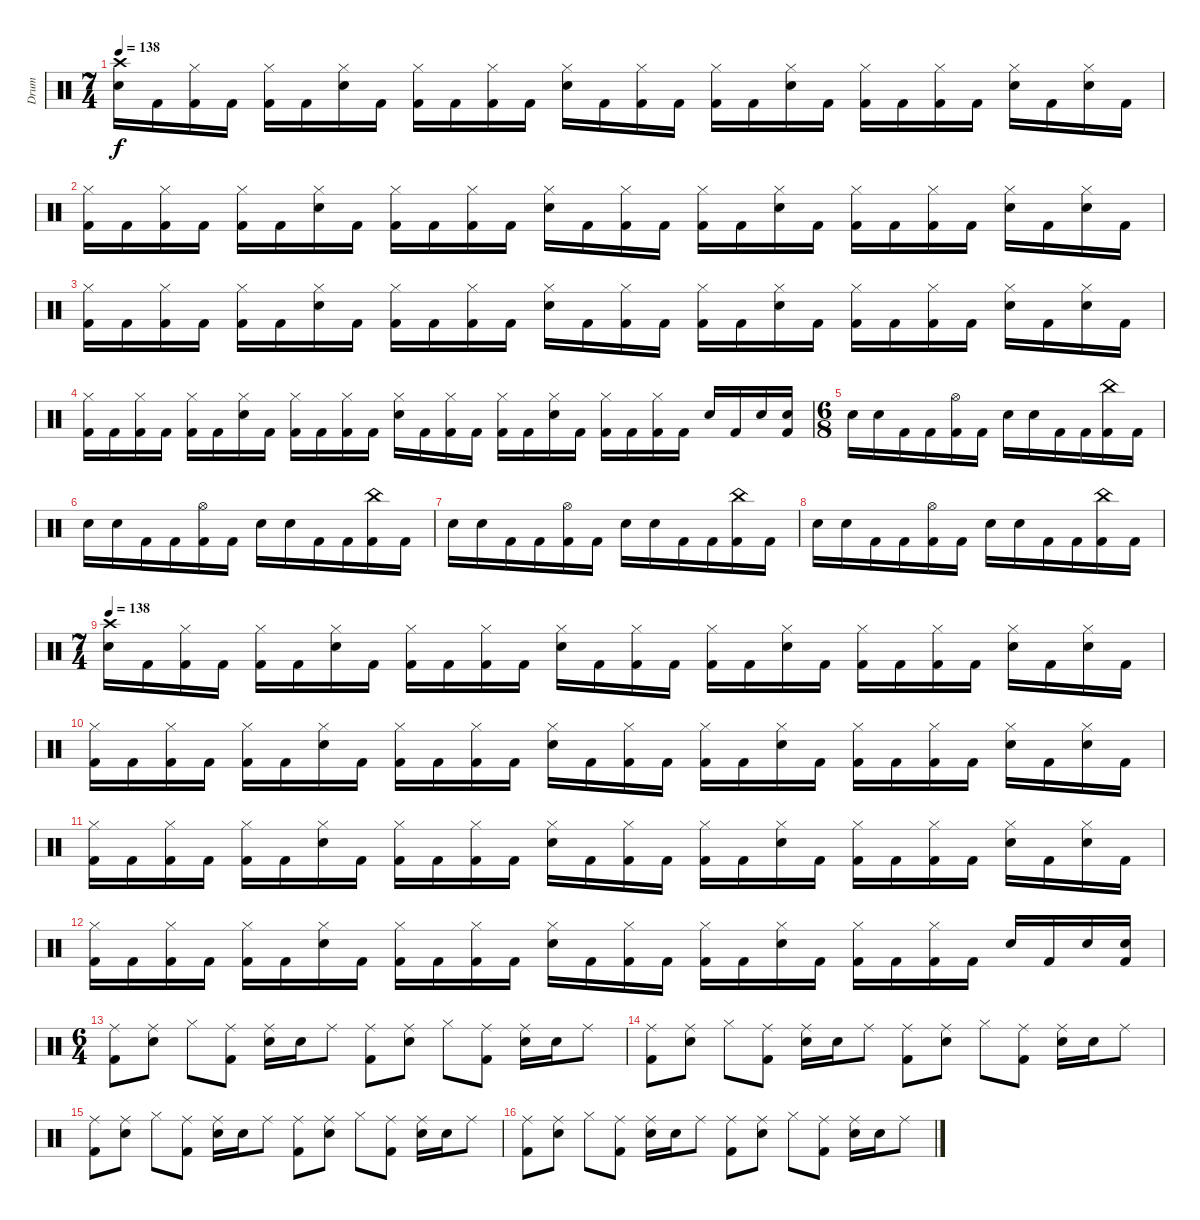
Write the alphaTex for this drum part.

\track ("Drum" "Drum") {instrument percussion}
\staff {score}
\articulation defaults
\ts (7 4)
\tempo 138
\clef neutral
\ks c
("Crash high (hit)" "Snare (hit) 2").16{dy f} "Kick (hit) 2".16 ("Hi-Hat (closed)" "Kick (hit) 2").16 "Kick (hit) 2".16 ("Hi-Hat (closed)" "Kick (hit) 2").16 "Kick (hit) 2".16 ("Hi-Hat (closed)" "Snare (hit) 2").16 "Kick (hit) 2".16 ("Hi-Hat (closed)" "Kick (hit) 2").16 "Kick (hit) 2".16 ("Hi-Hat (closed)" "Kick (hit) 2").16 "Kick (hit) 2".16 ("Hi-Hat (closed)" "Snare (hit) 2").16 "Kick (hit) 2".16 ("Hi-Hat (closed)" "Kick (hit) 2").16 "Kick (hit) 2".16 ("Hi-Hat (closed)" "Kick (hit) 2").16 "Kick (hit) 2".16 ("Hi-Hat (closed)" "Snare (hit) 2").16 "Kick (hit) 2".16 ("Hi-Hat (closed)" "Kick (hit) 2").16 "Kick (hit) 2".16 ("Hi-Hat (closed)" "Kick (hit) 2").16 "Kick (hit) 2".16 ("Hi-Hat (closed)" "Snare (hit) 2").16 "Kick (hit) 2".16 ("Hi-Hat (closed)" "Snare (hit) 2").16 "Kick (hit) 2".16 |
("Hi-Hat (closed)" "Kick (hit) 2").16 "Kick (hit) 2".16 ("Hi-Hat (closed)" "Kick (hit) 2").16 "Kick (hit) 2".16 ("Hi-Hat (closed)" "Kick (hit) 2").16 "Kick (hit) 2".16 ("Hi-Hat (closed)" "Snare (hit) 2").16 "Kick (hit) 2".16 ("Hi-Hat (closed)" "Kick (hit) 2").16 "Kick (hit) 2".16 ("Hi-Hat (closed)" "Kick (hit) 2").16 "Kick (hit) 2".16 ("Hi-Hat (closed)" "Snare (hit) 2").16 "Kick (hit) 2".16 ("Hi-Hat (closed)" "Kick (hit) 2").16 "Kick (hit) 2".16 ("Hi-Hat (closed)" "Kick (hit) 2").16 "Kick (hit) 2".16 ("Hi-Hat (closed)" "Snare (hit) 2").16 "Kick (hit) 2".16 ("Hi-Hat (closed)" "Kick (hit) 2").16 "Kick (hit) 2".16 ("Hi-Hat (closed)" "Kick (hit) 2").16 "Kick (hit) 2".16 ("Hi-Hat (closed)" "Snare (hit) 2").16 "Kick (hit) 2".16 ("Hi-Hat (closed)" "Snare (hit) 2").16 "Kick (hit) 2".16 |
("Hi-Hat (closed)" "Kick (hit) 2").16 "Kick (hit) 2".16 ("Hi-Hat (closed)" "Kick (hit) 2").16 "Kick (hit) 2".16 ("Hi-Hat (closed)" "Kick (hit) 2").16 "Kick (hit) 2".16 ("Hi-Hat (closed)" "Snare (hit) 2").16 "Kick (hit) 2".16 ("Hi-Hat (closed)" "Kick (hit) 2").16 "Kick (hit) 2".16 ("Hi-Hat (closed)" "Kick (hit) 2").16 "Kick (hit) 2".16 ("Hi-Hat (closed)" "Snare (hit) 2").16 "Kick (hit) 2".16 ("Hi-Hat (closed)" "Kick (hit) 2").16 "Kick (hit) 2".16 ("Hi-Hat (closed)" "Kick (hit) 2").16 "Kick (hit) 2".16 ("Hi-Hat (closed)" "Snare (hit) 2").16 "Kick (hit) 2".16 ("Hi-Hat (closed)" "Kick (hit) 2").16 "Kick (hit) 2".16 ("Hi-Hat (closed)" "Kick (hit) 2").16 "Kick (hit) 2".16 ("Hi-Hat (closed)" "Snare (hit) 2").16 "Kick (hit) 2".16 ("Hi-Hat (closed)" "Snare (hit) 2").16 "Kick (hit) 2".16 |
("Hi-Hat (closed)" "Kick (hit) 2").16 "Kick (hit) 2".16 ("Hi-Hat (closed)" "Kick (hit) 2").16 "Kick (hit) 2".16 ("Hi-Hat (closed)" "Kick (hit) 2").16 "Kick (hit) 2".16 ("Hi-Hat (closed)" "Snare (hit) 2").16 "Kick (hit) 2".16 ("Hi-Hat (closed)" "Kick (hit) 2").16 "Kick (hit) 2".16 ("Hi-Hat (closed)" "Kick (hit) 2").16 "Kick (hit) 2".16 ("Hi-Hat (closed)" "Snare (hit) 2").16 "Kick (hit) 2".16 ("Hi-Hat (closed)" "Kick (hit) 2").16 "Kick (hit) 2".16 ("Hi-Hat (closed)" "Kick (hit) 2").16 "Kick (hit) 2".16 ("Hi-Hat (closed)" "Snare (hit) 2").16 "Kick (hit) 2".16 ("Hi-Hat (closed)" "Kick (hit) 2").16 "Kick (hit) 2".16 ("Hi-Hat (closed)" "Kick (hit) 2").16 "Kick (hit) 2".16 "Snare (hit) 2".16 "Kick (hit) 2".16 "Snare (hit) 2".16 ("Snare (hit) 2" "Kick (hit) 2").16 |
\ts (6 8)
"Snare (hit) 2".16 "Snare (hit) 2".16 "Kick (hit) 2".16 "Kick (hit) 2".16 ("Hi-Hat (open)" "Kick (hit) 2").16 "Kick (hit) 2".16 "Snare (hit) 2".16 "Snare (hit) 2".16 "Kick (hit) 2".16 "Kick (hit) 2".16 ("China (hit)" "Kick (hit) 2").16 "Kick (hit) 2".16 |
"Snare (hit) 2".16 "Snare (hit) 2".16 "Kick (hit) 2".16 "Kick (hit) 2".16 ("Hi-Hat (open)" "Kick (hit) 2").16 "Kick (hit) 2".16 "Snare (hit) 2".16 "Snare (hit) 2".16 "Kick (hit) 2".16 "Kick (hit) 2".16 ("China (hit)" "Kick (hit) 2").16 "Kick (hit) 2".16 |
"Snare (hit) 2".16 "Snare (hit) 2".16 "Kick (hit) 2".16 "Kick (hit) 2".16 ("Hi-Hat (open)" "Kick (hit) 2").16 "Kick (hit) 2".16 "Snare (hit) 2".16 "Snare (hit) 2".16 "Kick (hit) 2".16 "Kick (hit) 2".16 ("China (hit)" "Kick (hit) 2").16 "Kick (hit) 2".16 |
"Snare (hit) 2".16 "Snare (hit) 2".16 "Kick (hit) 2".16 "Kick (hit) 2".16 ("Hi-Hat (open)" "Kick (hit) 2").16 "Kick (hit) 2".16 "Snare (hit) 2".16 "Snare (hit) 2".16 "Kick (hit) 2".16 "Kick (hit) 2".16 ("China (hit)" "Kick (hit) 2").16 "Kick (hit) 2".16 |
\ts (7 4)
\tempo 138
("Crash high (hit)" "Snare (hit) 2").16 "Kick (hit) 2".16 ("Hi-Hat (closed)" "Kick (hit) 2").16 "Kick (hit) 2".16 ("Hi-Hat (closed)" "Kick (hit) 2").16 "Kick (hit) 2".16 ("Hi-Hat (closed)" "Snare (hit) 2").16 "Kick (hit) 2".16 ("Hi-Hat (closed)" "Kick (hit) 2").16 "Kick (hit) 2".16 ("Hi-Hat (closed)" "Kick (hit) 2").16 "Kick (hit) 2".16 ("Hi-Hat (closed)" "Snare (hit) 2").16 "Kick (hit) 2".16 ("Hi-Hat (closed)" "Kick (hit) 2").16 "Kick (hit) 2".16 ("Hi-Hat (closed)" "Kick (hit) 2").16 "Kick (hit) 2".16 ("Hi-Hat (closed)" "Snare (hit) 2").16 "Kick (hit) 2".16 ("Hi-Hat (closed)" "Kick (hit) 2").16 "Kick (hit) 2".16 ("Hi-Hat (closed)" "Kick (hit) 2").16 "Kick (hit) 2".16 ("Hi-Hat (closed)" "Snare (hit) 2").16 "Kick (hit) 2".16 ("Hi-Hat (closed)" "Snare (hit) 2").16 "Kick (hit) 2".16 |
("Hi-Hat (closed)" "Kick (hit) 2").16 "Kick (hit) 2".16 ("Hi-Hat (closed)" "Kick (hit) 2").16 "Kick (hit) 2".16 ("Hi-Hat (closed)" "Kick (hit) 2").16 "Kick (hit) 2".16 ("Hi-Hat (closed)" "Snare (hit) 2").16 "Kick (hit) 2".16 ("Hi-Hat (closed)" "Kick (hit) 2").16 "Kick (hit) 2".16 ("Hi-Hat (closed)" "Kick (hit) 2").16 "Kick (hit) 2".16 ("Hi-Hat (closed)" "Snare (hit) 2").16 "Kick (hit) 2".16 ("Hi-Hat (closed)" "Kick (hit) 2").16 "Kick (hit) 2".16 ("Hi-Hat (closed)" "Kick (hit) 2").16 "Kick (hit) 2".16 ("Hi-Hat (closed)" "Snare (hit) 2").16 "Kick (hit) 2".16 ("Hi-Hat (closed)" "Kick (hit) 2").16 "Kick (hit) 2".16 ("Hi-Hat (closed)" "Kick (hit) 2").16 "Kick (hit) 2".16 ("Hi-Hat (closed)" "Snare (hit) 2").16 "Kick (hit) 2".16 ("Hi-Hat (closed)" "Snare (hit) 2").16 "Kick (hit) 2".16 |
("Hi-Hat (closed)" "Kick (hit) 2").16 "Kick (hit) 2".16 ("Hi-Hat (closed)" "Kick (hit) 2").16 "Kick (hit) 2".16 ("Hi-Hat (closed)" "Kick (hit) 2").16 "Kick (hit) 2".16 ("Hi-Hat (closed)" "Snare (hit) 2").16 "Kick (hit) 2".16 ("Hi-Hat (closed)" "Kick (hit) 2").16 "Kick (hit) 2".16 ("Hi-Hat (closed)" "Kick (hit) 2").16 "Kick (hit) 2".16 ("Hi-Hat (closed)" "Snare (hit) 2").16 "Kick (hit) 2".16 ("Hi-Hat (closed)" "Kick (hit) 2").16 "Kick (hit) 2".16 ("Hi-Hat (closed)" "Kick (hit) 2").16 "Kick (hit) 2".16 ("Hi-Hat (closed)" "Snare (hit) 2").16 "Kick (hit) 2".16 ("Hi-Hat (closed)" "Kick (hit) 2").16 "Kick (hit) 2".16 ("Hi-Hat (closed)" "Kick (hit) 2").16 "Kick (hit) 2".16 ("Hi-Hat (closed)" "Snare (hit) 2").16 "Kick (hit) 2".16 ("Hi-Hat (closed)" "Snare (hit) 2").16 "Kick (hit) 2".16 |
("Hi-Hat (closed)" "Kick (hit) 2").16 "Kick (hit) 2".16 ("Hi-Hat (closed)" "Kick (hit) 2").16 "Kick (hit) 2".16 ("Hi-Hat (closed)" "Kick (hit) 2").16 "Kick (hit) 2".16 ("Hi-Hat (closed)" "Snare (hit) 2").16 "Kick (hit) 2".16 ("Hi-Hat (closed)" "Kick (hit) 2").16 "Kick (hit) 2".16 ("Hi-Hat (closed)" "Kick (hit) 2").16 "Kick (hit) 2".16 ("Hi-Hat (closed)" "Snare (hit) 2").16 "Kick (hit) 2".16 ("Hi-Hat (closed)" "Kick (hit) 2").16 "Kick (hit) 2".16 ("Hi-Hat (closed)" "Kick (hit) 2").16 "Kick (hit) 2".16 ("Hi-Hat (closed)" "Snare (hit) 2").16 "Kick (hit) 2".16 ("Hi-Hat (closed)" "Kick (hit) 2").16 "Kick (hit) 2".16 ("Hi-Hat (closed)" "Kick (hit) 2").16 "Kick (hit) 2".16 "Snare (hit) 2".16 "Kick (hit) 2".16 "Snare (hit) 2".16 ("Snare (hit) 2" "Kick (hit) 2").16 |
\ts (6 4)
("Ride (middle)" "Kick (hit) 2").8 ("Ride (middle)" "Snare (hit) 2").8 "Hi-Hat (closed)".8 ("Ride (middle)" "Kick (hit) 2").8 ("Ride (middle)" "Snare (hit) 2").16 "Snare (hit) 2".16 "Ride (middle)".8 ("Ride (middle)" "Kick (hit) 2").8 ("Ride (middle)" "Snare (hit) 2").8 "Hi-Hat (closed)".8 ("Ride (middle)" "Kick (hit) 2").8 ("Ride (middle)" "Snare (hit) 2").16 "Snare (hit) 2".16 "Ride (middle)".8 |
("Ride (middle)" "Kick (hit) 2").8 ("Ride (middle)" "Snare (hit) 2").8 "Hi-Hat (closed)".8 ("Ride (middle)" "Kick (hit) 2").8 ("Ride (middle)" "Snare (hit) 2").16 "Snare (hit) 2".16 "Ride (middle)".8 ("Ride (middle)" "Kick (hit) 2").8 ("Ride (middle)" "Snare (hit) 2").8 "Hi-Hat (closed)".8 ("Ride (middle)" "Kick (hit) 2").8 ("Ride (middle)" "Snare (hit) 2").16 "Snare (hit) 2".16 "Ride (middle)".8 |
("Ride (middle)" "Kick (hit) 2").8 ("Ride (middle)" "Snare (hit) 2").8 "Hi-Hat (closed)".8 ("Ride (middle)" "Kick (hit) 2").8 ("Ride (middle)" "Snare (hit) 2").16 "Snare (hit) 2".16 "Ride (middle)".8 ("Ride (middle)" "Kick (hit) 2").8 ("Ride (middle)" "Snare (hit) 2").8 "Hi-Hat (closed)".8 ("Ride (middle)" "Kick (hit) 2").8 ("Ride (middle)" "Snare (hit) 2").16 "Snare (hit) 2".16 "Ride (middle)".8 |
("Ride (middle)" "Kick (hit) 2").8 ("Ride (middle)" "Snare (hit) 2").8 "Hi-Hat (closed)".8 ("Ride (middle)" "Kick (hit) 2").8 ("Ride (middle)" "Snare (hit) 2").16 "Snare (hit) 2".16 "Ride (middle)".8 ("Ride (middle)" "Kick (hit) 2").8 ("Ride (middle)" "Snare (hit) 2").8 "Hi-Hat (closed)".8 ("Ride (middle)" "Kick (hit) 2").8 ("Ride (middle)" "Snare (hit) 2").16 "Snare (hit) 2".16 "Ride (middle)".8
